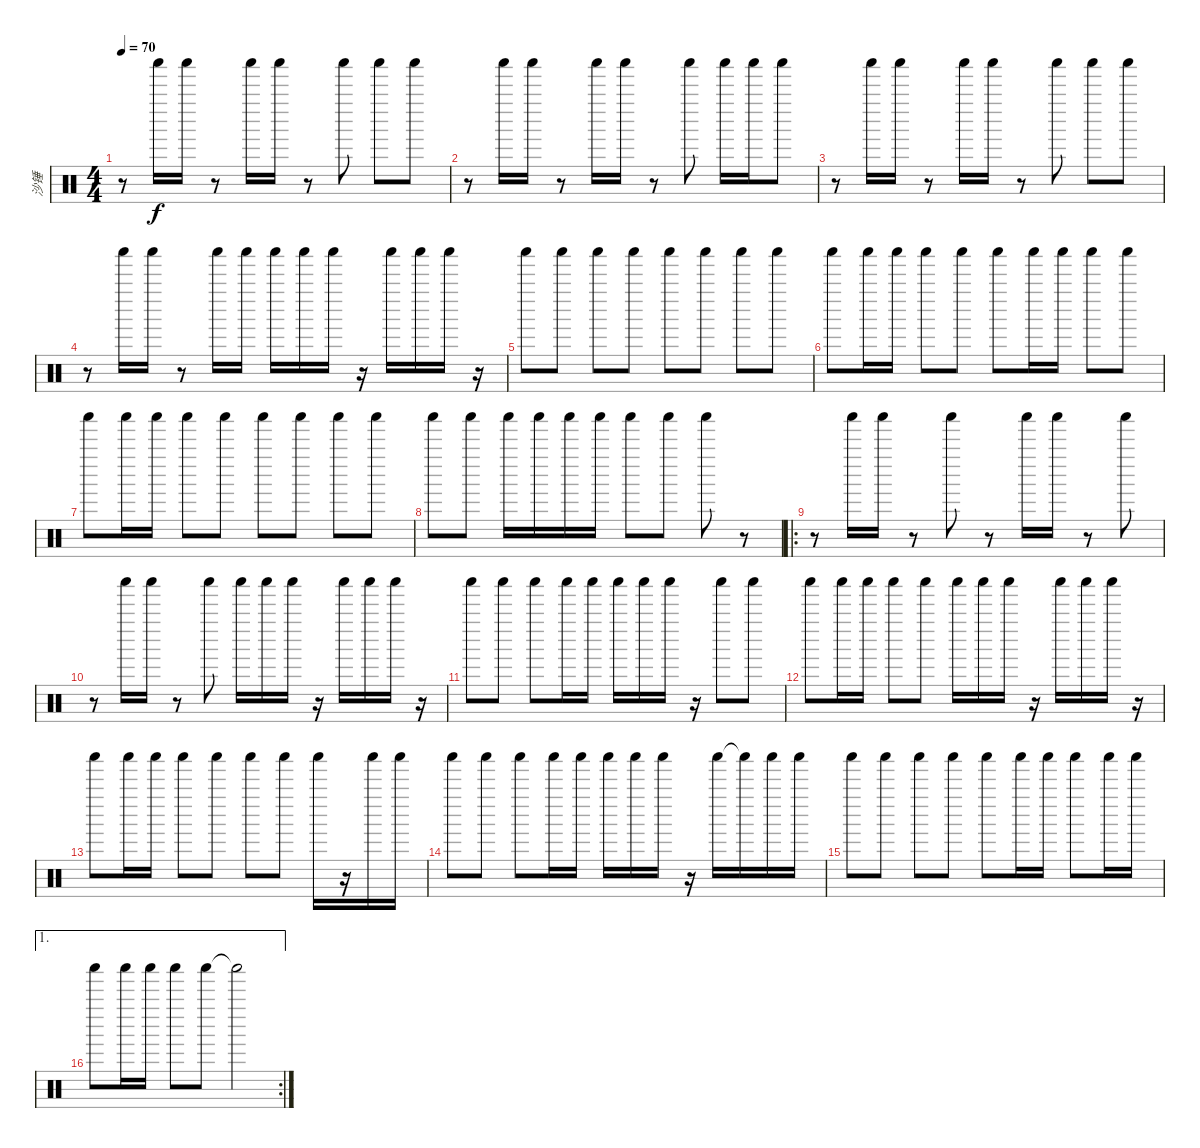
\track ("沙锤" "沙锤") {instrument percussion}
\staff {score}
\articulation defaults
\ts (4 4)
\tempo 70
\clef neutral
\ks c
r.8{dy f} "Shaker (hit)".16 "Shaker (hit)".16 r.8 "Shaker (hit)".16 "Shaker (hit)".16 r.8 "Shaker (hit)".8 "Shaker (hit)".8 "Shaker (hit)".8 |
r.8 "Shaker (hit)".16 "Shaker (hit)".16 r.8 "Shaker (hit)".16 "Shaker (hit)".16 r.8 "Shaker (hit)".8 "Shaker (hit)".16 "Shaker (hit)".16 "Shaker (hit)".8 |
r.8 "Shaker (hit)".16 "Shaker (hit)".16 r.8 "Shaker (hit)".16 "Shaker (hit)".16 r.8 "Shaker (hit)".8 "Shaker (hit)".8 "Shaker (hit)".8 |
r.8 "Shaker (hit)".16 "Shaker (hit)".16 r.8 "Shaker (hit)".16 "Shaker (hit)".16 "Shaker (hit)".16 "Shaker (hit)".16 "Shaker (hit)".16 r.16 "Shaker (hit)".16 "Shaker (hit)".16 "Shaker (hit)".16 r.16 |
"Shaker (hit)".8 "Shaker (hit)".8 "Shaker (hit)".8 "Shaker (hit)".8 "Shaker (hit)".8 "Shaker (hit)".8 "Shaker (hit)".8 "Shaker (hit)".8 |
"Shaker (hit)".8 "Shaker (hit)".16 "Shaker (hit)".16 "Shaker (hit)".8 "Shaker (hit)".8 "Shaker (hit)".8 "Shaker (hit)".16 "Shaker (hit)".16 "Shaker (hit)".8 "Shaker (hit)".8 |
"Shaker (hit)".8 "Shaker (hit)".16 "Shaker (hit)".16 "Shaker (hit)".8 "Shaker (hit)".8 "Shaker (hit)".8 "Shaker (hit)".8 "Shaker (hit)".8 "Shaker (hit)".8 |
"Shaker (hit)".8 "Shaker (hit)".8 "Shaker (hit)".16 "Shaker (hit)".16 "Shaker (hit)".16 "Shaker (hit)".16 "Shaker (hit)".8 "Shaker (hit)".8 "Shaker (hit)".8 r.8 |
\ro
r.8 "Shaker (hit)".16 "Shaker (hit)".16 r.8 "Shaker (hit)".8 r.8 "Shaker (hit)".16 "Shaker (hit)".16 r.8 "Shaker (hit)".8 |
r.8 "Shaker (hit)".16 "Shaker (hit)".16 r.8 "Shaker (hit)".8 "Shaker (hit)".16 "Shaker (hit)".16 "Shaker (hit)".16 r.16 "Shaker (hit)".16 "Shaker (hit)".16 "Shaker (hit)".16 r.16 |
"Shaker (hit)".8 "Shaker (hit)".8 "Shaker (hit)".8 "Shaker (hit)".16 "Shaker (hit)".16 "Shaker (hit)".16 "Shaker (hit)".16 "Shaker (hit)".16 r.16 "Shaker (hit)".8 "Shaker (hit)".8 |
"Shaker (hit)".8 "Shaker (hit)".16 "Shaker (hit)".16 "Shaker (hit)".8 "Shaker (hit)".8 "Shaker (hit)".16 "Shaker (hit)".16 "Shaker (hit)".16 r.16 "Shaker (hit)".16 "Shaker (hit)".16 "Shaker (hit)".16 r.16 |
"Shaker (hit)".8 "Shaker (hit)".16 "Shaker (hit)".16 "Shaker (hit)".8 "Shaker (hit)".8 "Shaker (hit)".8 "Shaker (hit)".8 "Shaker (hit)".16 r.16 "Shaker (hit)".16 "Shaker (hit)".16 |
"Shaker (hit)".8 "Shaker (hit)".8 "Shaker (hit)".8 "Shaker (hit)".16 "Shaker (hit)".16 "Shaker (hit)".16 "Shaker (hit)".16 "Shaker (hit)".16 r.16 "Shaker (hit)".16 "Shaker (hit)"{t}.16 "Shaker (hit)".16 "Shaker (hit)".16 |
"Shaker (hit)".8 "Shaker (hit)".8 "Shaker (hit)".8 "Shaker (hit)".8 "Shaker (hit)".8 "Shaker (hit)".16 "Shaker (hit)".16 "Shaker (hit)".8 "Shaker (hit)".16 "Shaker (hit)".16 |
\ae 1
\rc 2 "Shaker (hit)".8 "Shaker (hit)".16 "Shaker (hit)".16 "Shaker (hit)".8 "Shaker (hit)".8 "Shaker (hit)"{t}.2
